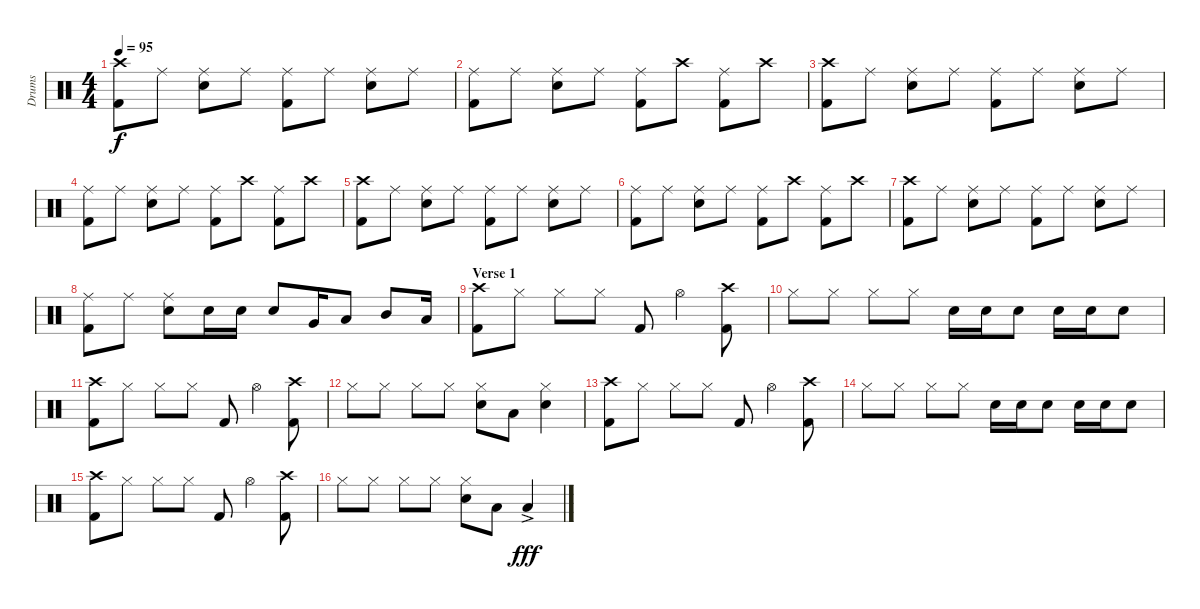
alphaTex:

\track ("Drums" "Drums") {instrument percussion}
\staff {score}
\articulation defaults
\ts (4 4)
\tempo 95
\clef neutral
\ks c
("Kick (hit) 2" "Crash high (hit)").8{dy f} "Ride (middle)".8 ("Snare (hit) 2" "Ride (middle)").8 "Ride (middle)".8 ("Kick (hit) 2" "Ride (middle)").8 "Ride (middle)".8 ("Snare (hit) 2" "Ride (middle)").8 "Ride (middle)".8 |
("Kick (hit) 2" "Ride (middle)").8 "Ride (middle)".8 ("Snare (hit) 2" "Ride (middle)").8 "Ride (middle)".8 ("Kick (hit) 2" "Ride (middle)").8 "Crash high (hit)".8 ("Kick (hit) 2" "Ride (middle)").8 "Crash high (hit)".8 |
("Kick (hit) 2" "Crash high (hit)").8 "Ride (middle)".8 ("Snare (hit) 2" "Ride (middle)").8 "Ride (middle)".8 ("Kick (hit) 2" "Ride (middle)").8 "Ride (middle)".8 ("Snare (hit) 2" "Ride (middle)").8 "Ride (middle)".8 |
("Kick (hit) 2" "Ride (middle)").8 "Ride (middle)".8 ("Snare (hit) 2" "Ride (middle)").8 "Ride (middle)".8 ("Kick (hit) 2" "Ride (middle)").8 "Crash high (hit)".8 ("Kick (hit) 2" "Ride (middle)").8 "Crash high (hit)".8 |
("Kick (hit) 2" "Crash high (hit)").8 "Ride (middle)".8 ("Snare (hit) 2" "Ride (middle)").8 "Ride (middle)".8 ("Kick (hit) 2" "Ride (middle)").8 "Ride (middle)".8 ("Snare (hit) 2" "Ride (middle)").8 "Ride (middle)".8 |
("Kick (hit) 2" "Ride (middle)").8 "Ride (middle)".8 ("Snare (hit) 2" "Ride (middle)").8 "Ride (middle)".8 ("Kick (hit) 2" "Ride (middle)").8 "Crash high (hit)".8 ("Kick (hit) 2" "Ride (middle)").8 "Crash high (hit)".8 |
("Kick (hit) 2" "Crash high (hit)").8 "Ride (middle)".8 ("Snare (hit) 2" "Ride (middle)").8 "Ride (middle)".8 ("Kick (hit) 2" "Ride (middle)").8 "Ride (middle)".8 ("Snare (hit) 2" "Ride (middle)").8 "Ride (middle)".8 |
("Kick (hit) 2" "Ride (middle)").8 "Ride (middle)".8 ("Snare (hit) 2" "Ride (middle)").8 "Snare (hit) 2".16 "Snare (hit) 2".16 "Snare (hit) 2".8 "Very Low Tom (hit)".16 "Low Tom (hit)".8 "Mid Tom (hit)".8 "Low Tom (hit)".16 |
\section ("" "Verse 1")
("Kick (hit) 2" "Crash high (hit)").8 "Hi-Hat (closed)".8 "Hi-Hat (closed)".8 "Hi-Hat (closed)".8 "Kick (hit) 2".8 "Hi-Hat (open)".4 ("Kick (hit) 2" "Crash high (hit)").8 |
"Hi-Hat (closed)".8 "Hi-Hat (closed)".8 "Hi-Hat (closed)".8 "Hi-Hat (closed)".8 "Snare (hit) 2".16 "Snare (hit) 2".16 "Snare (hit) 2".8 "Snare (hit) 2".16 "Snare (hit) 2".16 "Snare (hit) 2".8 |
("Kick (hit) 2" "Crash high (hit)").8 "Hi-Hat (closed)".8 "Hi-Hat (closed)".8 "Hi-Hat (closed)".8 "Kick (hit) 2".8 "Hi-Hat (open)".4 ("Kick (hit) 2" "Crash high (hit)").8 |
"Hi-Hat (closed)".8 "Hi-Hat (closed)".8 "Hi-Hat (closed)".8 "Hi-Hat (closed)".8 ("Snare (hit) 2" "Hi-Hat (closed)").8 "Low Tom (hit)".8 ("Snare (hit) 2" "Hi-Hat (closed)").4 |
("Kick (hit) 2" "Crash high (hit)").8 "Hi-Hat (closed)".8 "Hi-Hat (closed)".8 "Hi-Hat (closed)".8 "Kick (hit) 2".8 "Hi-Hat (open)".4 ("Kick (hit) 2" "Crash high (hit)").8 |
"Hi-Hat (closed)".8 "Hi-Hat (closed)".8 "Hi-Hat (closed)".8 "Hi-Hat (closed)".8 "Snare (hit) 2".16 "Snare (hit) 2".16 "Snare (hit) 2".8 "Snare (hit) 2".16 "Snare (hit) 2".16 "Snare (hit) 2".8 |
("Kick (hit) 2" "Crash high (hit)").8 "Hi-Hat (closed)".8 "Hi-Hat (closed)".8 "Hi-Hat (closed)".8 "Kick (hit) 2".8 "Hi-Hat (open)".4 ("Kick (hit) 2" "Crash high (hit)").8 |
"Hi-Hat (closed)".8 "Hi-Hat (closed)".8 "Hi-Hat (closed)".8 "Hi-Hat (closed)".8 ("Snare (hit) 2" "Hi-Hat (closed)").8 "Low Tom (hit)".8 "Low Floor Tom (hit)"{ac}.4{dy fff}
